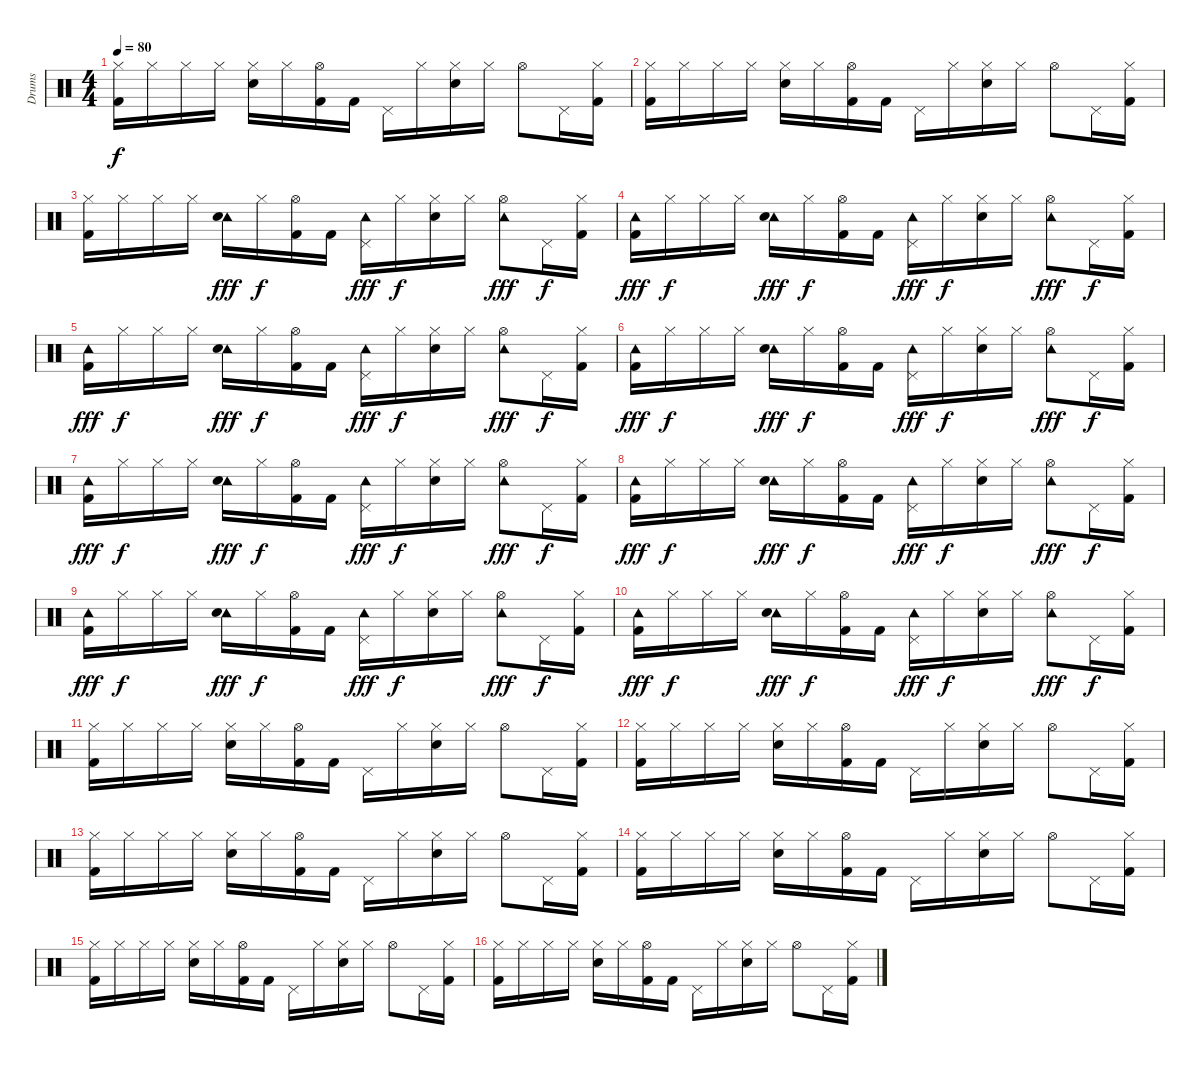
\track ("Drums" "Drums") {instrument percussion}
\staff {score}
\articulation defaults
\ts (4 4)
\tempo 80
\clef neutral
\ks c
("Hi-Hat (closed)" "Kick (hit) 2").16{dy f} "Hi-Hat (closed)".16 "Hi-Hat (closed)".16 "Hi-Hat (closed)".16 ("Hi-Hat (closed)" "Electric Snare (hit)").16 "Hi-Hat (closed)".16 ("Hi-Hat (open)" "Kick (hit) 2").16 "Kick (hit) 2".16 "Pedal Hi-Hat (hit)".16 "Hi-Hat (closed)".16 ("Hi-Hat (closed)" "Electric Snare (hit)").16 "Hi-Hat (closed)".16 "Hi-Hat (open)".8 "Pedal Hi-Hat (hit)".16 ("Hi-Hat (closed)" "Kick (hit) 2").16 |
("Hi-Hat (closed)" "Kick (hit) 2").16 "Hi-Hat (closed)".16 "Hi-Hat (closed)".16 "Hi-Hat (closed)".16 ("Hi-Hat (closed)" "Electric Snare (hit)").16 "Hi-Hat (closed)".16 ("Hi-Hat (open)" "Kick (hit) 2").16 "Kick (hit) 2".16 "Pedal Hi-Hat (hit)".16 "Hi-Hat (closed)".16 ("Hi-Hat (closed)" "Electric Snare (hit)").16 "Hi-Hat (closed)".16 "Hi-Hat (open)".8 "Pedal Hi-Hat (hit)".16 ("Hi-Hat (closed)" "Kick (hit) 2").16 |
("Hi-Hat (closed)" "Kick (hit) 2").16 "Hi-Hat (closed)".16 "Hi-Hat (closed)".16 "Hi-Hat (closed)".16 ("Tambourine (hit)" "Electric Snare (hit)").16{dy fff} "Hi-Hat (closed)".16{dy f} ("Hi-Hat (open)" "Kick (hit) 2").16 "Kick (hit) 2".16 ("Pedal Hi-Hat (hit)" "Tambourine (hit)").16{dy fff} "Hi-Hat (closed)".16{dy f} ("Hi-Hat (closed)" "Electric Snare (hit)").16 "Hi-Hat (closed)".16 ("Hi-Hat (open)" "Tambourine (hit)").8{dy fff} "Pedal Hi-Hat (hit)".16{dy f} ("Hi-Hat (closed)" "Kick (hit) 2").16 |
("Tambourine (hit)" "Kick (hit) 2").16{dy fff} "Hi-Hat (closed)".16{dy f} "Hi-Hat (closed)".16 "Hi-Hat (closed)".16 ("Tambourine (hit)" "Electric Snare (hit)").16{dy fff} "Hi-Hat (closed)".16{dy f} ("Hi-Hat (open)" "Kick (hit) 2").16 "Kick (hit) 2".16 ("Pedal Hi-Hat (hit)" "Tambourine (hit)").16{dy fff} "Hi-Hat (closed)".16{dy f} ("Hi-Hat (closed)" "Electric Snare (hit)").16 "Hi-Hat (closed)".16 ("Hi-Hat (open)" "Tambourine (hit)").8{dy fff} "Pedal Hi-Hat (hit)".16{dy f} ("Hi-Hat (closed)" "Kick (hit) 2").16 |
("Tambourine (hit)" "Kick (hit) 2").16{dy fff} "Hi-Hat (closed)".16{dy f} "Hi-Hat (closed)".16 "Hi-Hat (closed)".16 ("Tambourine (hit)" "Electric Snare (hit)").16{dy fff} "Hi-Hat (closed)".16{dy f} ("Hi-Hat (open)" "Kick (hit) 2").16 "Kick (hit) 2".16 ("Pedal Hi-Hat (hit)" "Tambourine (hit)").16{dy fff} "Hi-Hat (closed)".16{dy f} ("Hi-Hat (closed)" "Electric Snare (hit)").16 "Hi-Hat (closed)".16 ("Hi-Hat (open)" "Tambourine (hit)").8{dy fff} "Pedal Hi-Hat (hit)".16{dy f} ("Hi-Hat (closed)" "Kick (hit) 2").16 |
("Tambourine (hit)" "Kick (hit) 2").16{dy fff} "Hi-Hat (closed)".16{dy f} "Hi-Hat (closed)".16 "Hi-Hat (closed)".16 ("Tambourine (hit)" "Electric Snare (hit)").16{dy fff} "Hi-Hat (closed)".16{dy f} ("Hi-Hat (open)" "Kick (hit) 2").16 "Kick (hit) 2".16 ("Pedal Hi-Hat (hit)" "Tambourine (hit)").16{dy fff} "Hi-Hat (closed)".16{dy f} ("Hi-Hat (closed)" "Electric Snare (hit)").16 "Hi-Hat (closed)".16 ("Hi-Hat (open)" "Tambourine (hit)").8{dy fff} "Pedal Hi-Hat (hit)".16{dy f} ("Hi-Hat (closed)" "Kick (hit) 2").16 |
("Tambourine (hit)" "Kick (hit) 2").16{dy fff} "Hi-Hat (closed)".16{dy f} "Hi-Hat (closed)".16 "Hi-Hat (closed)".16 ("Tambourine (hit)" "Electric Snare (hit)").16{dy fff} "Hi-Hat (closed)".16{dy f} ("Hi-Hat (open)" "Kick (hit) 2").16 "Kick (hit) 2".16 ("Pedal Hi-Hat (hit)" "Tambourine (hit)").16{dy fff} "Hi-Hat (closed)".16{dy f} ("Hi-Hat (closed)" "Electric Snare (hit)").16 "Hi-Hat (closed)".16 ("Hi-Hat (open)" "Tambourine (hit)").8{dy fff} "Pedal Hi-Hat (hit)".16{dy f} ("Hi-Hat (closed)" "Kick (hit) 2").16 |
("Tambourine (hit)" "Kick (hit) 2").16{dy fff} "Hi-Hat (closed)".16{dy f} "Hi-Hat (closed)".16 "Hi-Hat (closed)".16 ("Tambourine (hit)" "Electric Snare (hit)").16{dy fff} "Hi-Hat (closed)".16{dy f} ("Hi-Hat (open)" "Kick (hit) 2").16 "Kick (hit) 2".16 ("Pedal Hi-Hat (hit)" "Tambourine (hit)").16{dy fff} "Hi-Hat (closed)".16{dy f} ("Hi-Hat (closed)" "Electric Snare (hit)").16 "Hi-Hat (closed)".16 ("Hi-Hat (open)" "Tambourine (hit)").8{dy fff} "Pedal Hi-Hat (hit)".16{dy f} ("Hi-Hat (closed)" "Kick (hit) 2").16 |
("Tambourine (hit)" "Kick (hit) 2").16{dy fff} "Hi-Hat (closed)".16{dy f} "Hi-Hat (closed)".16 "Hi-Hat (closed)".16 ("Tambourine (hit)" "Electric Snare (hit)").16{dy fff} "Hi-Hat (closed)".16{dy f} ("Hi-Hat (open)" "Kick (hit) 2").16 "Kick (hit) 2".16 ("Pedal Hi-Hat (hit)" "Tambourine (hit)").16{dy fff} "Hi-Hat (closed)".16{dy f} ("Hi-Hat (closed)" "Electric Snare (hit)").16 "Hi-Hat (closed)".16 ("Hi-Hat (open)" "Tambourine (hit)").8{dy fff} "Pedal Hi-Hat (hit)".16{dy f} ("Hi-Hat (closed)" "Kick (hit) 2").16 |
("Tambourine (hit)" "Kick (hit) 2").16{dy fff} "Hi-Hat (closed)".16{dy f} "Hi-Hat (closed)".16 "Hi-Hat (closed)".16 ("Tambourine (hit)" "Electric Snare (hit)").16{dy fff} "Hi-Hat (closed)".16{dy f} ("Hi-Hat (open)" "Kick (hit) 2").16 "Kick (hit) 2".16 ("Pedal Hi-Hat (hit)" "Tambourine (hit)").16{dy fff} "Hi-Hat (closed)".16{dy f} ("Hi-Hat (closed)" "Electric Snare (hit)").16 "Hi-Hat (closed)".16 ("Hi-Hat (open)" "Tambourine (hit)").8{dy fff} "Pedal Hi-Hat (hit)".16{dy f} ("Hi-Hat (closed)" "Kick (hit) 2").16 |
("Hi-Hat (closed)" "Kick (hit) 2").16 "Hi-Hat (closed)".16 "Hi-Hat (closed)".16 "Hi-Hat (closed)".16 ("Hi-Hat (closed)" "Electric Snare (hit)").16 "Hi-Hat (closed)".16 ("Hi-Hat (open)" "Kick (hit) 2").16 "Kick (hit) 2".16 "Pedal Hi-Hat (hit)".16 "Hi-Hat (closed)".16 ("Hi-Hat (closed)" "Electric Snare (hit)").16 "Hi-Hat (closed)".16 "Hi-Hat (open)".8 "Pedal Hi-Hat (hit)".16 ("Hi-Hat (closed)" "Kick (hit) 2").16 |
("Hi-Hat (closed)" "Kick (hit) 2").16 "Hi-Hat (closed)".16 "Hi-Hat (closed)".16 "Hi-Hat (closed)".16 ("Hi-Hat (closed)" "Electric Snare (hit)").16 "Hi-Hat (closed)".16 ("Hi-Hat (open)" "Kick (hit) 2").16 "Kick (hit) 2".16 "Pedal Hi-Hat (hit)".16 "Hi-Hat (closed)".16 ("Hi-Hat (closed)" "Electric Snare (hit)").16 "Hi-Hat (closed)".16 "Hi-Hat (open)".8 "Pedal Hi-Hat (hit)".16 ("Hi-Hat (closed)" "Kick (hit) 2").16 |
("Hi-Hat (closed)" "Kick (hit) 2").16 "Hi-Hat (closed)".16 "Hi-Hat (closed)".16 "Hi-Hat (closed)".16 ("Hi-Hat (closed)" "Electric Snare (hit)").16 "Hi-Hat (closed)".16 ("Hi-Hat (open)" "Kick (hit) 2").16 "Kick (hit) 2".16 "Pedal Hi-Hat (hit)".16 "Hi-Hat (closed)".16 ("Hi-Hat (closed)" "Electric Snare (hit)").16 "Hi-Hat (closed)".16 "Hi-Hat (open)".8 "Pedal Hi-Hat (hit)".16 ("Hi-Hat (closed)" "Kick (hit) 2").16 |
("Hi-Hat (closed)" "Kick (hit) 2").16 "Hi-Hat (closed)".16 "Hi-Hat (closed)".16 "Hi-Hat (closed)".16 ("Hi-Hat (closed)" "Electric Snare (hit)").16 "Hi-Hat (closed)".16 ("Hi-Hat (open)" "Kick (hit) 2").16 "Kick (hit) 2".16 "Pedal Hi-Hat (hit)".16 "Hi-Hat (closed)".16 ("Hi-Hat (closed)" "Electric Snare (hit)").16 "Hi-Hat (closed)".16 "Hi-Hat (open)".8 "Pedal Hi-Hat (hit)".16 ("Hi-Hat (closed)" "Kick (hit) 2").16 |
("Hi-Hat (closed)" "Kick (hit) 2").16 "Hi-Hat (closed)".16 "Hi-Hat (closed)".16 "Hi-Hat (closed)".16 ("Hi-Hat (closed)" "Electric Snare (hit)").16 "Hi-Hat (closed)".16 ("Hi-Hat (open)" "Kick (hit) 2").16 "Kick (hit) 2".16 "Pedal Hi-Hat (hit)".16 "Hi-Hat (closed)".16 ("Hi-Hat (closed)" "Electric Snare (hit)").16 "Hi-Hat (closed)".16 "Hi-Hat (open)".8 "Pedal Hi-Hat (hit)".16 ("Hi-Hat (closed)" "Kick (hit) 2").16 |
("Hi-Hat (closed)" "Kick (hit) 2").16 "Hi-Hat (closed)".16 "Hi-Hat (closed)".16 "Hi-Hat (closed)".16 ("Hi-Hat (closed)" "Electric Snare (hit)").16 "Hi-Hat (closed)".16 ("Hi-Hat (open)" "Kick (hit) 2").16 "Kick (hit) 2".16 "Pedal Hi-Hat (hit)".16 "Hi-Hat (closed)".16 ("Hi-Hat (closed)" "Electric Snare (hit)").16 "Hi-Hat (closed)".16 "Hi-Hat (open)".8 "Pedal Hi-Hat (hit)".16 ("Hi-Hat (closed)" "Kick (hit) 2").16
